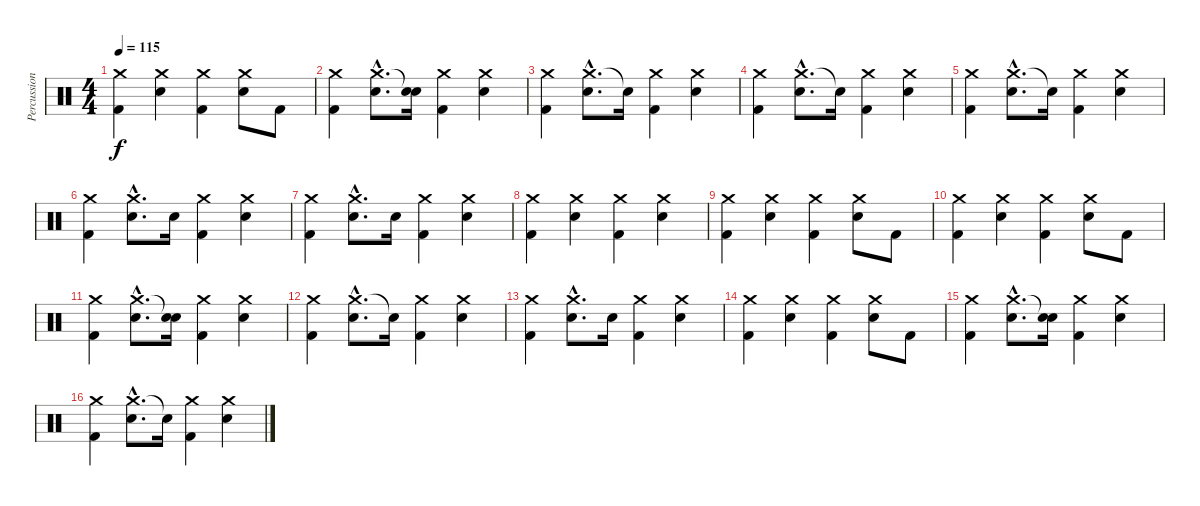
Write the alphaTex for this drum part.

\track ("Percussions" "Percussion") {instrument percussion}
\staff {score}
\articulation defaults
\ts (4 4)
\tempo 115
\clef neutral
\ks c
("Crash medium (hit)" "Kick (hit) 2").4{dy f} ("Crash medium (hit)" "Electric Snare (hit)").4 ("Crash medium (hit)" "Kick (hit) 2").4 ("Crash medium (hit)" "Electric Snare (hit)").8 "Kick (hit) 2".8 |
("Crash medium (hit)" "Kick (hit) 2").4 ("Crash medium (hit)"{hac} "Electric Snare (hit)"{hac}).8{d} ("Snare (hit)"{t} "Electric Snare (hit)").16 ("Crash medium (hit)" "Kick (hit) 2").4 ("Crash medium (hit)" "Electric Snare (hit)").4 |
("Crash medium (hit)" "Kick (hit) 2").4 ("Crash medium (hit)"{hac} "Electric Snare (hit)"{hac}).8{d} "Electric Snare (hit)"{t}.16 ("Crash medium (hit)" "Kick (hit) 2").4 ("Crash medium (hit)" "Electric Snare (hit)").4 |
("Crash medium (hit)" "Kick (hit) 2").4 ("Crash medium (hit)"{hac} "Electric Snare (hit)"{hac}).8{d} "Electric Snare (hit)"{t}.16 ("Crash medium (hit)" "Kick (hit) 2").4 ("Crash medium (hit)" "Electric Snare (hit)").4 |
("Crash medium (hit)" "Kick (hit) 2").4 ("Crash medium (hit)"{hac} "Electric Snare (hit)"{hac}).8{d} "Electric Snare (hit)"{t}.16 ("Crash medium (hit)" "Kick (hit) 2").4 ("Crash medium (hit)" "Electric Snare (hit)").4 |
("Crash medium (hit)" "Kick (hit) 2").4 ("Crash medium (hit)"{hac} "Electric Snare (hit)"{hac}).8{d} "Electric Snare (hit)".16 ("Crash medium (hit)" "Kick (hit) 2").4 ("Crash medium (hit)" "Electric Snare (hit)").4 |
("Crash medium (hit)" "Kick (hit) 2").4 ("Crash medium (hit)"{hac} "Electric Snare (hit)"{hac}).8{d} "Electric Snare (hit)".16 ("Crash medium (hit)" "Kick (hit) 2").4 ("Crash medium (hit)" "Electric Snare (hit)").4 |
("Crash medium (hit)" "Kick (hit) 2").4 ("Crash medium (hit)" "Electric Snare (hit)").4 ("Crash medium (hit)" "Kick (hit) 2").4 ("Crash medium (hit)" "Electric Snare (hit)").4 |
("Crash medium (hit)" "Kick (hit) 2").4 ("Crash medium (hit)" "Electric Snare (hit)").4 ("Crash medium (hit)" "Kick (hit) 2").4 ("Crash medium (hit)" "Electric Snare (hit)").8 "Kick (hit) 2".8 |
("Crash medium (hit)" "Kick (hit) 2").4 ("Crash medium (hit)" "Electric Snare (hit)").4 ("Crash medium (hit)" "Kick (hit) 2").4 ("Crash medium (hit)" "Electric Snare (hit)").8 "Kick (hit) 2".8 |
("Crash medium (hit)" "Kick (hit) 2").4 ("Crash medium (hit)"{hac} "Electric Snare (hit)"{hac}).8{d} ("Snare (hit)"{t} "Electric Snare (hit)").16 ("Crash medium (hit)" "Kick (hit) 2").4 ("Crash medium (hit)" "Electric Snare (hit)").4 |
("Crash medium (hit)" "Kick (hit) 2").4 ("Crash medium (hit)"{hac} "Electric Snare (hit)"{hac}).8{d} "Electric Snare (hit)"{t}.16 ("Crash medium (hit)" "Kick (hit) 2").4 ("Crash medium (hit)" "Electric Snare (hit)").4 |
("Crash medium (hit)" "Kick (hit) 2").4 ("Crash medium (hit)"{hac} "Electric Snare (hit)"{hac}).8{d} "Electric Snare (hit)".16 ("Crash medium (hit)" "Kick (hit) 2").4 ("Crash medium (hit)" "Electric Snare (hit)").4 |
("Crash medium (hit)" "Kick (hit) 2").4 ("Crash medium (hit)" "Electric Snare (hit)").4 ("Crash medium (hit)" "Kick (hit) 2").4 ("Crash medium (hit)" "Electric Snare (hit)").8 "Kick (hit) 2".8 |
("Crash medium (hit)" "Kick (hit) 2").4 ("Crash medium (hit)"{hac} "Electric Snare (hit)"{hac}).8{d} ("Snare (hit)"{t} "Electric Snare (hit)").16 ("Crash medium (hit)" "Kick (hit) 2").4 ("Crash medium (hit)" "Electric Snare (hit)").4 |
("Crash medium (hit)" "Kick (hit) 2").4 ("Crash medium (hit)"{hac} "Electric Snare (hit)"{hac}).8{d} "Electric Snare (hit)"{t}.16 ("Crash medium (hit)" "Kick (hit) 2").4 ("Crash medium (hit)" "Electric Snare (hit)").4
